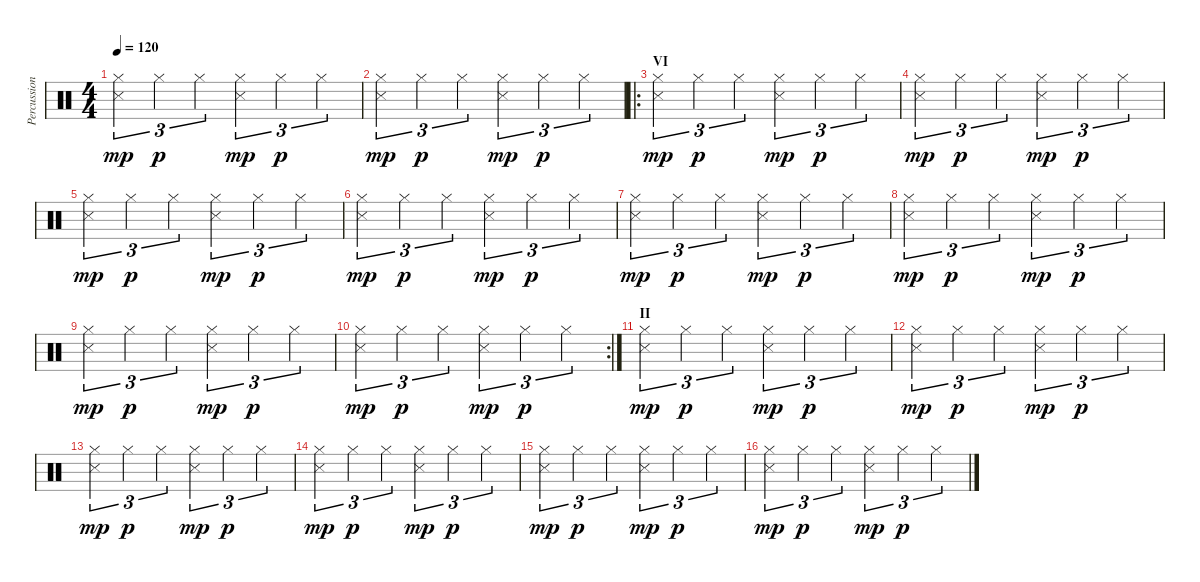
\track ("Percussion" "Percussion") {instrument percussion}
\staff {score}
\articulation defaults
\ts (4 4)
\tempo 120
\clef neutral
\ks c
("Hi-Hat (closed)" "Snare (side stick) 3").4{tu (3 2) dy mp} "Hi-Hat (closed)".4{tu (3 2) dy p} "Hi-Hat (closed)".4{tu (3 2)} ("Hi-Hat (closed)" "Snare (side stick) 3").4{tu (3 2) dy mp} "Hi-Hat (closed)".4{tu (3 2) dy p} "Hi-Hat (closed)".4{tu (3 2)} |
("Hi-Hat (closed)" "Snare (side stick) 3").4{tu (3 2) dy mp} "Hi-Hat (closed)".4{tu (3 2) dy p} "Hi-Hat (closed)".4{tu (3 2)} ("Hi-Hat (closed)" "Snare (side stick) 3").4{tu (3 2) dy mp} "Hi-Hat (closed)".4{tu (3 2) dy p} "Hi-Hat (closed)".4{tu (3 2)} |
\ro
\section ("" "VI")
("Hi-Hat (closed)" "Snare (side stick) 3").4{tu (3 2) dy mp} "Hi-Hat (closed)".4{tu (3 2) dy p} "Hi-Hat (closed)".4{tu (3 2)} ("Hi-Hat (closed)" "Snare (side stick) 3").4{tu (3 2) dy mp} "Hi-Hat (closed)".4{tu (3 2) dy p} "Hi-Hat (closed)".4{tu (3 2)} |
("Hi-Hat (closed)" "Snare (side stick) 3").4{tu (3 2) dy mp} "Hi-Hat (closed)".4{tu (3 2) dy p} "Hi-Hat (closed)".4{tu (3 2)} ("Hi-Hat (closed)" "Snare (side stick) 3").4{tu (3 2) dy mp} "Hi-Hat (closed)".4{tu (3 2) dy p} "Hi-Hat (closed)".4{tu (3 2)} |
("Hi-Hat (closed)" "Snare (side stick) 3").4{tu (3 2) dy mp} "Hi-Hat (closed)".4{tu (3 2) dy p} "Hi-Hat (closed)".4{tu (3 2)} ("Hi-Hat (closed)" "Snare (side stick) 3").4{tu (3 2) dy mp} "Hi-Hat (closed)".4{tu (3 2) dy p} "Hi-Hat (closed)".4{tu (3 2)} |
("Hi-Hat (closed)" "Snare (side stick) 3").4{tu (3 2) dy mp} "Hi-Hat (closed)".4{tu (3 2) dy p} "Hi-Hat (closed)".4{tu (3 2)} ("Hi-Hat (closed)" "Snare (side stick) 3").4{tu (3 2) dy mp} "Hi-Hat (closed)".4{tu (3 2) dy p} "Hi-Hat (closed)".4{tu (3 2)} |
("Hi-Hat (closed)" "Snare (side stick) 3").4{tu (3 2) dy mp} "Hi-Hat (closed)".4{tu (3 2) dy p} "Hi-Hat (closed)".4{tu (3 2)} ("Hi-Hat (closed)" "Snare (side stick) 3").4{tu (3 2) dy mp} "Hi-Hat (closed)".4{tu (3 2) dy p} "Hi-Hat (closed)".4{tu (3 2)} |
("Hi-Hat (closed)" "Snare (side stick) 3").4{tu (3 2) dy mp} "Hi-Hat (closed)".4{tu (3 2) dy p} "Hi-Hat (closed)".4{tu (3 2)} ("Hi-Hat (closed)" "Snare (side stick) 3").4{tu (3 2) dy mp} "Hi-Hat (closed)".4{tu (3 2) dy p} "Hi-Hat (closed)".4{tu (3 2)} |
("Hi-Hat (closed)" "Snare (side stick) 3").4{tu (3 2) dy mp} "Hi-Hat (closed)".4{tu (3 2) dy p} "Hi-Hat (closed)".4{tu (3 2)} ("Hi-Hat (closed)" "Snare (side stick) 3").4{tu (3 2) dy mp} "Hi-Hat (closed)".4{tu (3 2) dy p} "Hi-Hat (closed)".4{tu (3 2)} |
\rc 2
("Hi-Hat (closed)" "Snare (side stick) 3").4{tu (3 2) dy mp} "Hi-Hat (closed)".4{tu (3 2) dy p} "Hi-Hat (closed)".4{tu (3 2)} ("Hi-Hat (closed)" "Snare (side stick) 3").4{tu (3 2) dy mp} "Hi-Hat (closed)".4{tu (3 2) dy p} "Hi-Hat (closed)".4{tu (3 2)} |
\section ("" "II")
("Hi-Hat (closed)" "Snare (side stick) 3").4{tu (3 2) dy mp} "Hi-Hat (closed)".4{tu (3 2) dy p} "Hi-Hat (closed)".4{tu (3 2)} ("Hi-Hat (closed)" "Snare (side stick) 3").4{tu (3 2) dy mp} "Hi-Hat (closed)".4{tu (3 2) dy p} "Hi-Hat (closed)".4{tu (3 2)} |
("Hi-Hat (closed)" "Snare (side stick) 3").4{tu (3 2) dy mp} "Hi-Hat (closed)".4{tu (3 2) dy p} "Hi-Hat (closed)".4{tu (3 2)} ("Hi-Hat (closed)" "Snare (side stick) 3").4{tu (3 2) dy mp} "Hi-Hat (closed)".4{tu (3 2) dy p} "Hi-Hat (closed)".4{tu (3 2)} |
("Hi-Hat (closed)" "Snare (side stick) 3").4{tu (3 2) dy mp} "Hi-Hat (closed)".4{tu (3 2) dy p} "Hi-Hat (closed)".4{tu (3 2)} ("Hi-Hat (closed)" "Snare (side stick) 3").4{tu (3 2) dy mp} "Hi-Hat (closed)".4{tu (3 2) dy p} "Hi-Hat (closed)".4{tu (3 2)} |
("Hi-Hat (closed)" "Snare (side stick) 3").4{tu (3 2) dy mp} "Hi-Hat (closed)".4{tu (3 2) dy p} "Hi-Hat (closed)".4{tu (3 2)} ("Hi-Hat (closed)" "Snare (side stick) 3").4{tu (3 2) dy mp} "Hi-Hat (closed)".4{tu (3 2) dy p} "Hi-Hat (closed)".4{tu (3 2)} |
("Hi-Hat (closed)" "Snare (side stick) 3").4{tu (3 2) dy mp} "Hi-Hat (closed)".4{tu (3 2) dy p} "Hi-Hat (closed)".4{tu (3 2)} ("Hi-Hat (closed)" "Snare (side stick) 3").4{tu (3 2) dy mp} "Hi-Hat (closed)".4{tu (3 2) dy p} "Hi-Hat (closed)".4{tu (3 2)} |
("Hi-Hat (closed)" "Snare (side stick) 3").4{tu (3 2) dy mp} "Hi-Hat (closed)".4{tu (3 2) dy p} "Hi-Hat (closed)".4{tu (3 2)} ("Hi-Hat (closed)" "Snare (side stick) 3").4{tu (3 2) dy mp} "Hi-Hat (closed)".4{tu (3 2) dy p} "Hi-Hat (closed)".4{tu (3 2)}
